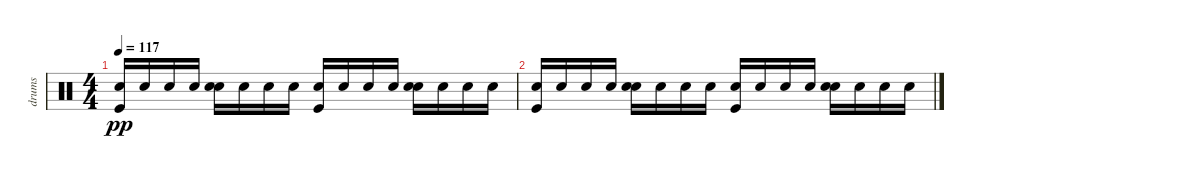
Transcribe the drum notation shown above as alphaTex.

\track ("drums" "drums") {instrument percussion}
\staff {score}
\articulation defaults
\ts (4 4)
\tempo 117
\clef neutral
\ks c
("Electric Snare (hit)" "Kick (hit)").16{dy pp} "Electric Snare (hit)".16 "Electric Snare (hit)".16 "Electric Snare (hit)".16 ("Snare (hit) 2" "Electric Snare (hit)").16 "Electric Snare (hit)".16 "Electric Snare (hit)".16 "Electric Snare (hit)".16 ("Electric Snare (hit)" "Kick (hit)").16 "Electric Snare (hit)".16 "Electric Snare (hit)".16 "Electric Snare (hit)".16 ("Snare (hit) 2" "Electric Snare (hit)").16 "Electric Snare (hit)".16 "Electric Snare (hit)".16 "Electric Snare (hit)".16 |
("Electric Snare (hit)" "Kick (hit)").16 "Electric Snare (hit)".16 "Electric Snare (hit)".16 "Electric Snare (hit)".16 ("Snare (hit) 2" "Electric Snare (hit)").16 "Electric Snare (hit)".16 "Electric Snare (hit)".16 "Electric Snare (hit)".16 ("Electric Snare (hit)" "Kick (hit)").16 "Electric Snare (hit)".16 "Electric Snare (hit)".16 "Electric Snare (hit)".16 ("Snare (hit) 2" "Electric Snare (hit)").16 "Electric Snare (hit)".16 "Electric Snare (hit)".16 "Electric Snare (hit)".16
